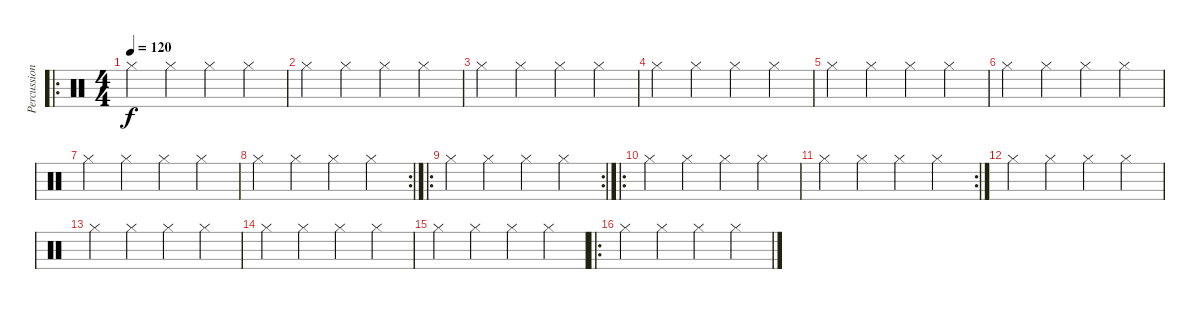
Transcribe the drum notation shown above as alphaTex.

\track ("Percussioni" "Percussion") {instrument percussion}
\staff {score}
\articulation defaults
\ro
\ts (4 4)
\tempo 120
\clef neutral
\ks c "Hi-Hat (closed)".4{dy f} "Hi-Hat (closed)".4 "Hi-Hat (closed)".4 "Hi-Hat (closed)".4
|
"Hi-Hat (closed)".4 "Hi-Hat (closed)".4 "Hi-Hat (closed)".4 "Hi-Hat (closed)".4 |
"Hi-Hat (closed)".4 "Hi-Hat (closed)".4 "Hi-Hat (closed)".4 "Hi-Hat (closed)".4 |
"Hi-Hat (closed)".4 "Hi-Hat (closed)".4 "Hi-Hat (closed)".4 "Hi-Hat (closed)".4 |
"Hi-Hat (closed)".4 "Hi-Hat (closed)".4 "Hi-Hat (closed)".4 "Hi-Hat (closed)".4 |
"Hi-Hat (closed)".4 "Hi-Hat (closed)".4 "Hi-Hat (closed)".4 "Hi-Hat (closed)".4 |
"Hi-Hat (closed)".4 "Hi-Hat (closed)".4 "Hi-Hat (closed)".4 "Hi-Hat (closed)".4 |
\rc 2 "Hi-Hat (closed)".4 "Hi-Hat (closed)".4 "Hi-Hat (closed)".4 "Hi-Hat (closed)".4
|
\ro
\rc 2 "Hi-Hat (closed)".4 "Hi-Hat (closed)".4 "Hi-Hat (closed)".4 "Hi-Hat (closed)".4
|
\ro "Hi-Hat (closed)".4 "Hi-Hat (closed)".4 "Hi-Hat (closed)".4 "Hi-Hat (closed)".4
|
\rc 2 "Hi-Hat (closed)".4 "Hi-Hat (closed)".4 "Hi-Hat (closed)".4 "Hi-Hat (closed)".4
|
"Hi-Hat (closed)".4 "Hi-Hat (closed)".4 "Hi-Hat (closed)".4 "Hi-Hat (closed)".4 |
"Hi-Hat (closed)".4 "Hi-Hat (closed)".4 "Hi-Hat (closed)".4 "Hi-Hat (closed)".4 |
"Hi-Hat (closed)".4 "Hi-Hat (closed)".4 "Hi-Hat (closed)".4 "Hi-Hat (closed)".4 |
"Hi-Hat (closed)".4 "Hi-Hat (closed)".4 "Hi-Hat (closed)".4 "Hi-Hat (closed)".4 |
\ro "Hi-Hat (closed)".4 "Hi-Hat (closed)".4 "Hi-Hat (closed)".4 "Hi-Hat (closed)".4
